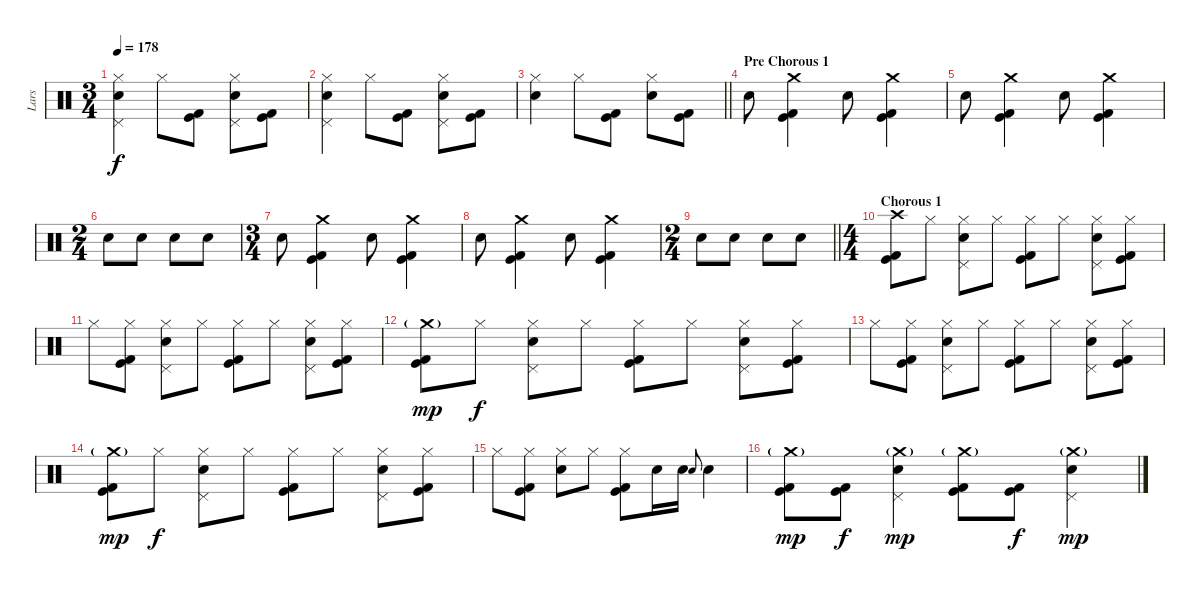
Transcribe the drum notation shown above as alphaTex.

\track ("Lars" "Lars") {instrument percussion}
\staff {score}
\articulation defaults
\ts (3 4)
\tempo 178
\clef neutral
\ks c
("Hi-Hat (closed)" "Pedal Hi-Hat (hit)" "Electric Snare (hit)").4{dy f} "Hi-Hat (closed)".8 ("Kick (hit)" "Kick (hit) 2").8 ("Hi-Hat (closed)" "Pedal Hi-Hat (hit)" "Electric Snare (hit)").8 ("Kick (hit)" "Kick (hit) 2").8 |
("Hi-Hat (closed)" "Pedal Hi-Hat (hit)" "Electric Snare (hit)").4 "Hi-Hat (closed)".8 ("Kick (hit)" "Kick (hit) 2").8 ("Hi-Hat (closed)" "Pedal Hi-Hat (hit)" "Electric Snare (hit)").8 ("Kick (hit)" "Kick (hit) 2").8 |
\barLineRight lightlight
("Hi-Hat (closed)" "Electric Snare (hit)").4 "Hi-Hat (closed)".8 ("Kick (hit)" "Kick (hit) 2").8 ("Hi-Hat (closed)" "Electric Snare (hit)").8 ("Kick (hit)" "Kick (hit) 2").8 |
\section ("" "Pre Chorous 1")
"Electric Snare (hit)".8 ("Crash medium (hit)" "Kick (hit)" "Kick (hit) 2").4 "Electric Snare (hit)".8 ("Crash medium (hit)" "Kick (hit)" "Kick (hit) 2").4 |
"Electric Snare (hit)".8 ("Crash medium (hit)" "Kick (hit)" "Kick (hit) 2").4 "Electric Snare (hit)".8 ("Crash medium (hit)" "Kick (hit)" "Kick (hit) 2").4 |
\ts (2 4)
"Electric Snare (hit)".8 "Electric Snare (hit)".8 "Electric Snare (hit)".8 "Electric Snare (hit)".8 |
\ts (3 4)
"Electric Snare (hit)".8 ("Crash medium (hit)" "Kick (hit)" "Kick (hit) 2").4 "Electric Snare (hit)".8 ("Crash medium (hit)" "Kick (hit)" "Kick (hit) 2").4 |
"Electric Snare (hit)".8 ("Crash medium (hit)" "Kick (hit)" "Kick (hit) 2").4 "Electric Snare (hit)".8 ("Crash medium (hit)" "Kick (hit)" "Kick (hit) 2").4 |
\ts (2 4)
\barLineRight lightlight "Electric Snare (hit)".8 "Electric Snare (hit)".8 "Electric Snare (hit)".8 "Electric Snare (hit)".8
|
\ts (4 4)
\section ("" "Chorous 1")
("Crash high (hit)" "Kick (hit)" "Kick (hit) 2").8 "Hi-Hat (closed)".8 ("Hi-Hat (closed)" "Pedal Hi-Hat (hit)" "Electric Snare (hit)").8 "Hi-Hat (closed)".8 ("Hi-Hat (closed)" "Kick (hit)" "Kick (hit) 2").8 "Hi-Hat (closed)".8 ("Hi-Hat (closed)" "Pedal Hi-Hat (hit)" "Electric Snare (hit)").8 ("Hi-Hat (closed)" "Kick (hit)" "Kick (hit) 2").8 |
"Hi-Hat (closed)".8 ("Hi-Hat (closed)" "Kick (hit)" "Kick (hit) 2").8 ("Hi-Hat (closed)" "Pedal Hi-Hat (hit)" "Electric Snare (hit)").8 "Hi-Hat (closed)".8 ("Hi-Hat (closed)" "Kick (hit)" "Kick (hit) 2").8 "Hi-Hat (closed)".8 ("Hi-Hat (closed)" "Pedal Hi-Hat (hit)" "Electric Snare (hit)").8 ("Hi-Hat (closed)" "Kick (hit)" "Kick (hit) 2").8 |
("Crash medium (hit)"{g} "Kick (hit)" "Kick (hit) 2").8{dy mp} "Hi-Hat (closed)".8{dy f} ("Hi-Hat (closed)" "Pedal Hi-Hat (hit)" "Electric Snare (hit)").8 "Hi-Hat (closed)".8 ("Hi-Hat (closed)" "Kick (hit)" "Kick (hit) 2").8 "Hi-Hat (closed)".8 ("Hi-Hat (closed)" "Pedal Hi-Hat (hit)" "Electric Snare (hit)").8 ("Hi-Hat (closed)" "Kick (hit)" "Kick (hit) 2").8 |
"Hi-Hat (closed)".8 ("Hi-Hat (closed)" "Kick (hit)" "Kick (hit) 2").8 ("Hi-Hat (closed)" "Pedal Hi-Hat (hit)" "Electric Snare (hit)").8 "Hi-Hat (closed)".8 ("Hi-Hat (closed)" "Kick (hit)" "Kick (hit) 2").8 "Hi-Hat (closed)".8 ("Hi-Hat (closed)" "Pedal Hi-Hat (hit)" "Electric Snare (hit)").8 ("Hi-Hat (closed)" "Kick (hit)" "Kick (hit) 2").8 |
("Crash medium (hit)"{g} "Kick (hit)" "Kick (hit) 2").8{dy mp} "Hi-Hat (closed)".8{dy f} ("Hi-Hat (closed)" "Pedal Hi-Hat (hit)" "Electric Snare (hit)").8 "Hi-Hat (closed)".8 ("Hi-Hat (closed)" "Kick (hit)" "Kick (hit) 2").8 "Hi-Hat (closed)".8 ("Hi-Hat (closed)" "Pedal Hi-Hat (hit)" "Electric Snare (hit)").8 ("Hi-Hat (closed)" "Kick (hit)" "Kick (hit) 2").8 |
"Hi-Hat (closed)".8 ("Hi-Hat (closed)" "Kick (hit)" "Kick (hit) 2").8 ("Hi-Hat (closed)" "Electric Snare (hit)").8 "Hi-Hat (closed)".8 ("Hi-Hat (closed)" "Kick (hit)" "Kick (hit) 2").8 "Electric Snare (hit)".16 "Electric Snare (hit)".16 "Electric Snare (hit)".8{gr onbeat} "Electric Snare (hit)".4 |
("Crash medium (hit)"{g} "Kick (hit)" "Kick (hit) 2").8{dy mp} ("Kick (hit)" "Kick (hit) 2").8{dy f} ("Crash medium (hit)"{g} "Pedal Hi-Hat (hit)" "Electric Snare (hit)").4{dy mp} ("Crash medium (hit)"{g} "Kick (hit)" "Kick (hit) 2").8 ("Kick (hit)" "Kick (hit) 2").8{dy f} ("Crash medium (hit)"{g} "Pedal Hi-Hat (hit)" "Electric Snare (hit)").4{dy mp}
